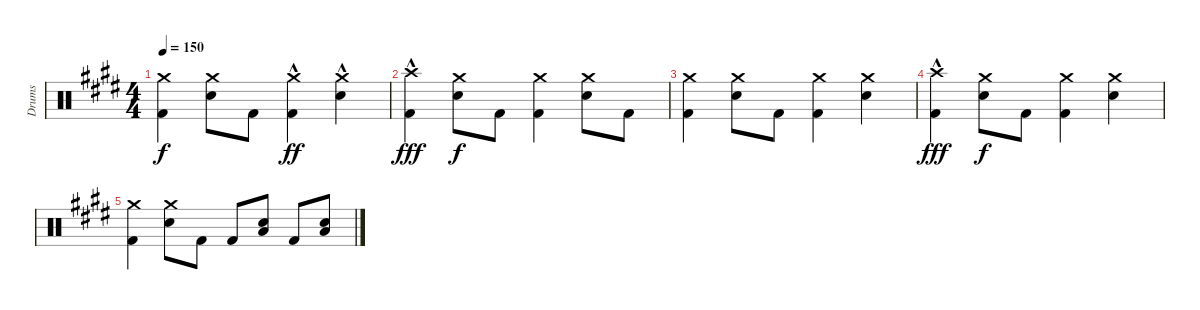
\track ("Drums" "Drums") {instrument percussion}
\staff {score}
\articulation defaults
\ts (4 4)
\tempo 150
\clef neutral
\ks e
("Crash medium (hit)" "Kick (hit) 2").4{dy f} ("Crash medium (hit)" "Electric Snare (hit)").8 "Kick (hit) 2".8 ("Crash medium (hit)"{hac} "Kick (hit) 2").4{dy ff} ("Crash medium (hit)"{hac} "Electric Snare (hit)").4 |
("Crash high (hit)"{hac} "Kick (hit) 2").4{dy fff} ("Crash medium (hit)" "Electric Snare (hit)").8{dy f} "Kick (hit) 2".8 ("Crash medium (hit)" "Kick (hit) 2").4 ("Crash medium (hit)" "Electric Snare (hit)").8 "Kick (hit) 2".8 |
("Crash medium (hit)" "Kick (hit) 2").4 ("Crash medium (hit)" "Electric Snare (hit)").8 "Kick (hit) 2".8 ("Crash medium (hit)" "Kick (hit) 2").4 ("Crash medium (hit)" "Electric Snare (hit)").4 |
("Crash high (hit)"{hac} "Kick (hit) 2").4{dy fff} ("Crash medium (hit)" "Electric Snare (hit)").8{dy f} "Kick (hit) 2".8 ("Crash medium (hit)" "Kick (hit) 2").4 ("Crash medium (hit)" "Electric Snare (hit)").4 |
("Crash medium (hit)" "Kick (hit) 2").4 ("Crash medium (hit)" "Electric Snare (hit)").8 "Kick (hit) 2".8 "Kick (hit) 2".8 ("Electric Snare (hit)" "Low Floor Tom (hit)").8 "Kick (hit) 2".8 ("Electric Snare (hit)" "Low Floor Tom (hit)").8
